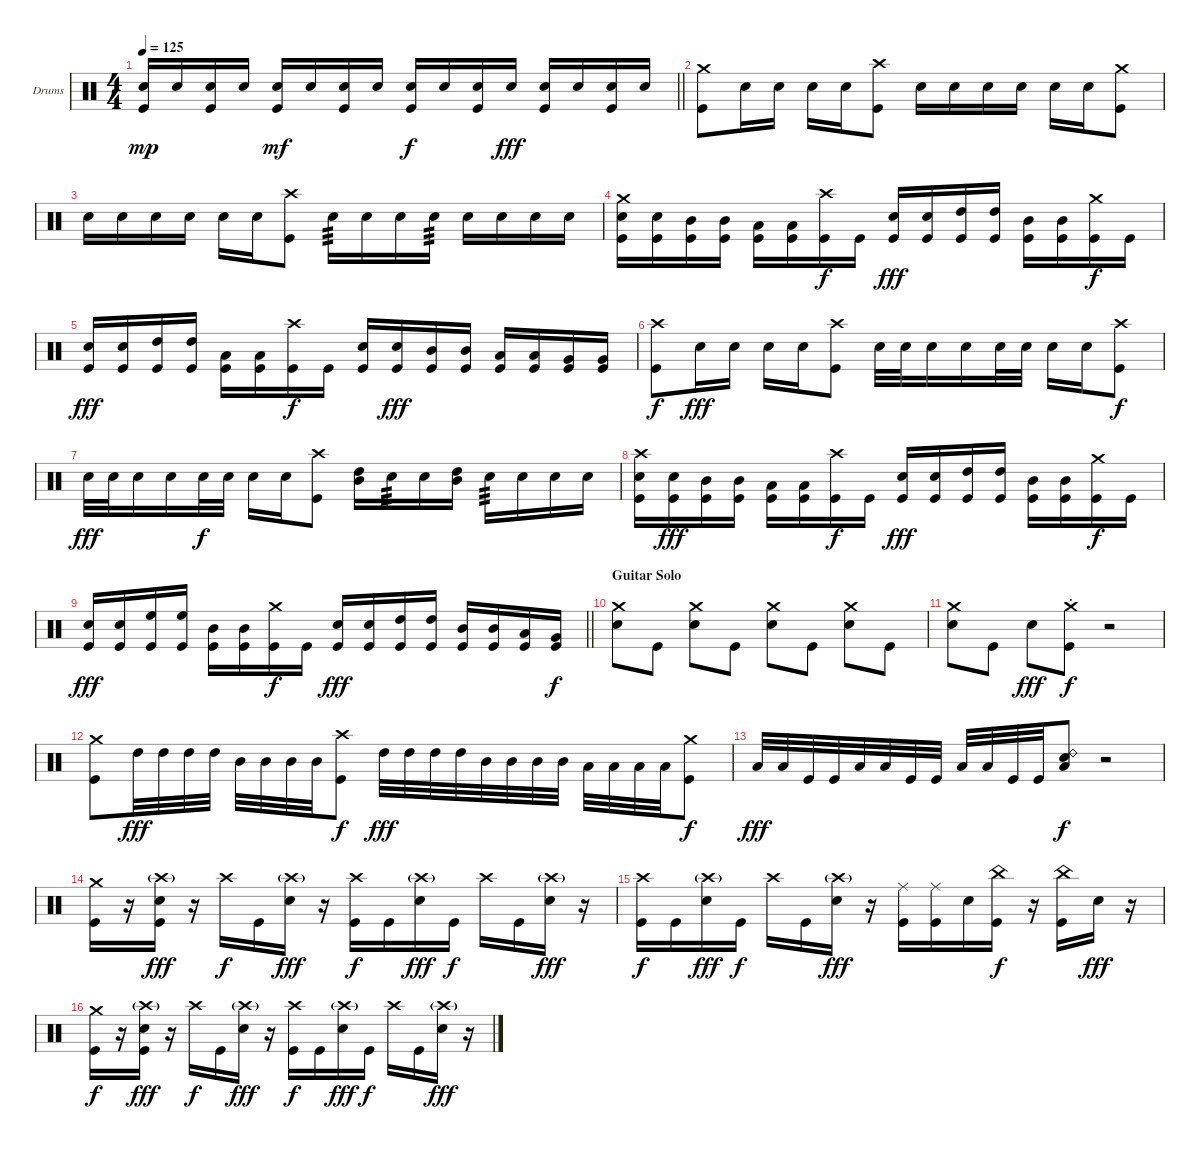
\bracketExtendMode groupsimilarinstruments
\firstSystemTrackNameOrientation horizontal
\otherSystemsTrackNameOrientation horizontal
\track ("Drumkit" "Drums") {instrument percussion}
\staff {score}
\articulation defaults
\ts (4 4)
\tempo 125
\clef neutral
\barLineRight lightlight
\ks c
("Snare (hit) 2" "Kick (hit)").16{dy mp} "Snare (hit) 2".16 ("Snare (hit) 2" "Kick (hit)").16 "Snare (hit) 2".16 ("Snare (hit) 2" "Kick (hit)").16{dy mf} "Snare (hit) 2".16 ("Snare (hit) 2" "Kick (hit)").16 "Snare (hit) 2".16 ("Snare (hit) 2" "Kick (hit)").16{dy f} "Snare (hit) 2".16 ("Snare (hit) 2" "Kick (hit)").16 "Snare (hit) 2".16{dy fff} ("Snare (hit) 2" "Kick (hit)").16 "Snare (hit) 2".16 ("Snare (hit) 2" "Kick (hit)").16 "Snare (hit) 2".16 |
("Crash medium (hit)" "Kick (hit)").8 "Snare (hit) 2".16 "Snare (hit) 2".16 "Snare (hit) 2".16 "Snare (hit) 2".16 ("Crash high (hit)" "Kick (hit)").8 "Snare (hit) 2".16 "Snare (hit) 2".16 "Snare (hit) 2".16 "Snare (hit) 2".16 "Snare (hit) 2".16 "Snare (hit) 2".16 ("Crash medium (hit)" "Kick (hit)").8 |
"Snare (hit) 2".16 "Snare (hit) 2".16 "Snare (hit) 2".16 "Snare (hit) 2".16 "Snare (hit) 2".16 "Snare (hit) 2".16 ("Crash high (hit)" "Kick (hit)").8 "Snare (hit) 2".16{tp 3} "Snare (hit) 2".16 "Snare (hit) 2".16 "Snare (hit) 2".16{tp 3} "Snare (hit) 2".16 "Snare (hit) 2".16 "Snare (hit) 2".16 "Snare (hit) 2".16 |
("Crash medium (hit)" "Snare (hit) 2" "Kick (hit)").16 ("Snare (hit) 2" "Kick (hit)").16 ("Mid Tom (hit)" "Kick (hit)").16 ("Mid Tom (hit)" "Kick (hit)").16 ("Low Tom (hit)" "Kick (hit)").16 ("Low Tom (hit)" "Kick (hit)").16 ("Crash high (hit)" "Kick (hit)").16{dy f} "Kick (hit)".16 ("Snare (hit) 2" "Kick (hit)").16{dy fff} ("Snare (hit) 2" "Kick (hit)").16 ("High Tom (hit)" "Kick (hit)").16 ("High Tom (hit)" "Kick (hit)").16 ("Mid Tom (hit)" "Kick (hit)").16 ("Mid Tom (hit)" "Kick (hit)").16 ("Crash medium (hit)" "Kick (hit)").16{dy f} "Kick (hit)".16 |
("Snare (hit) 2" "Kick (hit)").16{dy fff} ("Snare (hit) 2" "Kick (hit)").16 ("High Tom (hit)" "Kick (hit)").16 ("High Tom (hit)" "Kick (hit)").16 ("Low Tom (hit)" "Kick (hit)").16 ("Low Tom (hit)" "Kick (hit)").16 ("Crash high (hit)" "Kick (hit)").16{dy f} "Kick (hit)".16 ("Snare (hit) 2" "Kick (hit)").16 ("Snare (hit) 2" "Kick (hit)").16{dy fff} ("Mid Tom (hit)" "Kick (hit)").16 ("Mid Tom (hit)" "Kick (hit)").16 ("Low Tom (hit)" "Kick (hit)").16 ("Low Tom (hit)" "Kick (hit)").16 ("Very Low Tom (hit)" "Kick (hit)").16 ("Very Low Tom (hit)" "Kick (hit)").16 |
("Crash high (hit)" "Kick (hit)").8{dy f} "Snare (hit) 2".16{dy fff} "Snare (hit) 2".16 "Snare (hit) 2".16 "Snare (hit) 2".16 ("Crash high (hit)" "Kick (hit)").8 "Snare (hit) 2".32 "Snare (hit) 2".32 "Snare (hit) 2".16 "Snare (hit) 2".16 "Snare (hit) 2".32 "Snare (hit) 2".32 "Snare (hit) 2".16 "Snare (hit) 2".16 ("Crash high (hit)" "Kick (hit)").8{dy f} |
"Snare (hit) 2".32{dy fff} "Snare (hit) 2".32 "Snare (hit) 2".16 "Snare (hit) 2".16 "Snare (hit) 2".32{dy f} "Snare (hit) 2".32 "Snare (hit) 2".16 "Snare (hit) 2".16 ("Crash high (hit)" "Kick (hit)").8 ("High Tom (hit)" "Mid Tom (hit)").16 "Snare (hit) 2".16{tp 3} "Snare (hit) 2".16 ("High Tom (hit)" "Mid Tom (hit)").16 "Snare (hit) 2".16{tp 3} "Snare (hit) 2".16 "Snare (hit) 2".16 "Snare (hit) 2".16 |
("Crash high (hit)" "Snare (hit) 2" "Kick (hit)").16 ("Snare (hit) 2" "Kick (hit)").16{dy fff} ("Mid Tom (hit)" "Kick (hit)").16 ("Mid Tom (hit)" "Kick (hit)").16 ("Low Tom (hit)" "Kick (hit)").16 ("Low Tom (hit)" "Kick (hit)").16 ("Crash high (hit)" "Kick (hit)").16{dy f} "Kick (hit)".16 ("Snare (hit) 2" "Kick (hit)").16{dy fff} ("Snare (hit) 2" "Kick (hit)").16 ("High Tom (hit)" "Kick (hit)").16 ("High Tom (hit)" "Kick (hit)").16 ("Mid Tom (hit)" "Kick (hit)").16 ("Mid Tom (hit)" "Kick (hit)").16 ("Crash medium (hit)" "Kick (hit)").16{dy f} "Kick (hit)".16 |
\barLineRight lightlight
("Snare (hit) 2" "Kick (hit)").16{dy fff} ("Snare (hit) 2" "Kick (hit)").16 ("High Floor Tom (hit)" "Kick (hit)").16 ("High Floor Tom (hit)" "Kick (hit)").16 ("Mid Tom (hit)" "Kick (hit)").16 ("Mid Tom (hit)" "Kick (hit)").16 ("Crash medium (hit)" "Kick (hit)").16{dy f} "Kick (hit)".16 ("Snare (hit) 2" "Kick (hit)").16{dy fff} ("Snare (hit) 2" "Kick (hit)").16 ("High Tom (hit)" "Kick (hit)").16 ("High Tom (hit)" "Kick (hit)").16 ("Mid Tom (hit)" "Kick (hit)").16 ("Mid Tom (hit)" "Kick (hit)").16 ("Low Tom (hit)" "Kick (hit)").16 ("Very Low Tom (hit)" "Kick (hit)").16{dy f} |
\section ("" "Guitar Solo")
("Crash medium (hit)" "Snare (hit) 2").8 "Kick (hit)".8 ("Crash medium (hit)" "Snare (hit) 2").8 "Kick (hit)".8 ("Crash medium (hit)" "Snare (hit) 2").8 "Kick (hit)".8 ("Crash medium (hit)" "Snare (hit) 2").8 "Kick (hit)".8 |
("Crash medium (hit)" "Snare (hit) 2").8 "Kick (hit)".8 "Snare (hit) 2".8{dy fff} ("Crash medium (hit)"{st} "Kick (hit)").8{dy f} r.2 |
("Crash medium (hit)" "Kick (hit)").8 "High Tom (hit)".32{dy fff} "High Tom (hit)".32 "High Tom (hit)".32 "High Tom (hit)".32 "Mid Tom (hit)".32 "Mid Tom (hit)".32 "Mid Tom (hit)".32 "Mid Tom (hit)".32 ("Crash high (hit)" "Kick (hit)").8{dy f} "High Tom (hit)".32{dy fff} "High Tom (hit)".32 "High Tom (hit)".32 "High Tom (hit)".32 "Mid Tom (hit)".32 "Mid Tom (hit)".32 "Mid Tom (hit)".32 "Mid Tom (hit)".32 "Low Tom (hit)".32 "Low Tom (hit)".32 "Low Tom (hit)".32 "Low Tom (hit)".32 ("Crash medium (hit)" "Kick (hit)").8{dy f} |
"Low Tom (hit)".32{dy fff} "Low Tom (hit)".32 "Kick (hit)".32 "Kick (hit)".32 "Low Tom (hit)".32 "Low Tom (hit)".32 "Kick (hit)".32 "Kick (hit)".32 "Low Tom (hit)".32 "Low Tom (hit)".32 "Kick (hit)".32 "Kick (hit)".32 ("Ride (bell) 2" "Snare (hit) 2" "Low Tom (hit)").8{dy f} r.2 |
("Crash medium (hit)" "Kick (hit)").16 r.16 ("Crash high (hit)"{g} "Snare (hit) 2" "Kick (hit)").16{dy fff} r.16 "Crash high (hit)".16{dy f} "Kick (hit)".16 ("Crash high (hit)"{g} "Snare (hit) 2").16{dy fff} r.16 ("Crash high (hit)" "Kick (hit)").16{dy f} "Kick (hit)".16 ("Crash high (hit)"{g} "Snare (hit) 2").16{dy fff} "Kick (hit)".16{dy f} "Crash high (hit)".16 "Kick (hit)".16 ("Crash high (hit)"{g} "Snare (hit) 2").16{dy fff} r.16 |
("Crash high (hit)" "Kick (hit)").16{dy f} "Kick (hit)".16 ("Crash high (hit)"{g} "Snare (hit) 2").16{dy fff} "Kick (hit)".16{dy f} "Crash high (hit)".16 "Kick (hit)".16 ("Crash high (hit)"{g} "Snare (hit) 2").16{dy fff} r.16 ("Ride (middle)" "Kick (hit)").16 ("Ride (middle)" "Kick (hit)").16 "Snare (hit) 2".16 ("China (hit)" "Kick (hit)").16{dy f} r.16 ("China (hit)" "Kick (hit)").16 "Snare (hit) 2".16{dy fff} r.16 |
("Crash medium (hit)" "Kick (hit)").16{dy f} r.16 ("Crash high (hit)"{g} "Snare (hit) 2" "Kick (hit)").16{dy fff} r.16 "Crash high (hit)".16{dy f} "Kick (hit)".16 ("Crash high (hit)"{g} "Snare (hit) 2").16{dy fff} r.16 ("Crash high (hit)" "Kick (hit)").16{dy f} "Kick (hit)".16 ("Crash high (hit)"{g} "Snare (hit) 2").16{dy fff} "Kick (hit)".16{dy f} "Crash high (hit)".16 "Kick (hit)".16 ("Crash high (hit)"{g} "Snare (hit) 2").16{dy fff} r.16
